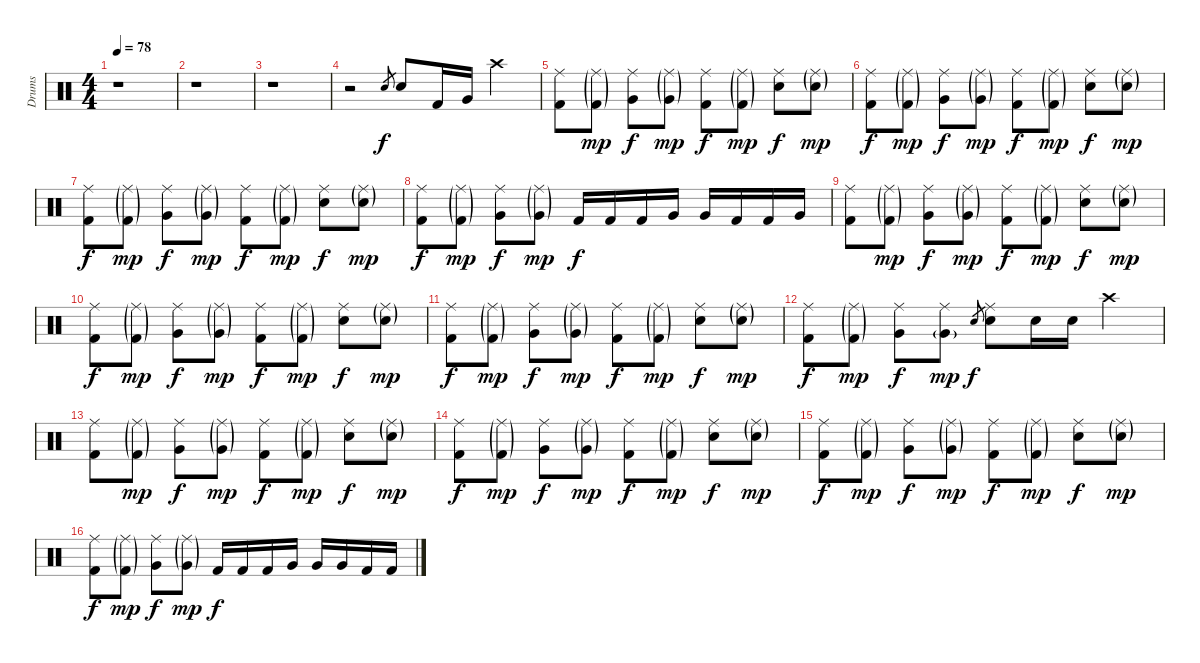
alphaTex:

\track ("Drums" "Drums") {instrument percussion}
\staff {score}
\articulation defaults
\ts (4 4)
\tempo 78
\clef neutral
\ks c
r.1{dy f} |
r.1 |
r.1 |
r.2 "Snare (hit) 2".8{gr} "Snare (hit) 2".8 "Kick (hit) 2".16 "Very Low Tom (hit)".16 "Crash high (hit)".4 |
("Ride (middle)" "Kick (hit) 2").8 ("Ride (middle)"{g} "Kick (hit) 2"{g}).8{dy mp} ("Ride (middle)" "Very Low Tom (hit)").8{dy f} ("Ride (middle)"{g} "Very Low Tom (hit)"{g}).8{dy mp} ("Ride (middle)" "Kick (hit) 2").8{dy f} ("Ride (middle)"{g} "Kick (hit) 2"{g}).8{dy mp} ("Ride (middle)" "Snare (hit) 2").8{dy f} ("Ride (middle)"{g} "Snare (hit) 2"{g}).8{dy mp} |
("Ride (middle)" "Kick (hit) 2").8{dy f} ("Ride (middle)"{g} "Kick (hit) 2"{g}).8{dy mp} ("Ride (middle)" "Very Low Tom (hit)").8{dy f} ("Ride (middle)"{g} "Very Low Tom (hit)"{g}).8{dy mp} ("Ride (middle)" "Kick (hit) 2").8{dy f} ("Ride (middle)"{g} "Kick (hit) 2"{g}).8{dy mp} ("Ride (middle)" "Snare (hit) 2").8{dy f} ("Ride (middle)"{g} "Snare (hit) 2"{g}).8{dy mp} |
("Ride (middle)" "Kick (hit) 2").8{dy f} ("Ride (middle)"{g} "Kick (hit) 2"{g}).8{dy mp} ("Ride (middle)" "Very Low Tom (hit)").8{dy f} ("Ride (middle)"{g} "Very Low Tom (hit)"{g}).8{dy mp} ("Ride (middle)" "Kick (hit) 2").8{dy f} ("Ride (middle)"{g} "Kick (hit) 2"{g}).8{dy mp} ("Ride (middle)" "Snare (hit) 2").8{dy f} ("Ride (middle)"{g} "Snare (hit) 2"{g}).8{dy mp} |
("Ride (middle)" "Kick (hit) 2").8{dy f} ("Ride (middle)"{g} "Kick (hit) 2"{g}).8{dy mp} ("Ride (middle)" "Very Low Tom (hit)").8{dy f} ("Ride (middle)"{g} "Very Low Tom (hit)"{g}).8{dy mp} "Kick (hit) 2".16{dy f} "Kick (hit) 2".16 "Kick (hit) 2".16 "Very Low Tom (hit)".16 "Very Low Tom (hit)".16 "Kick (hit) 2".16 "Kick (hit) 2".16 "Very Low Tom (hit)".16 |
("Ride (middle)" "Kick (hit) 2").8 ("Ride (middle)"{g} "Kick (hit) 2"{g}).8{dy mp} ("Ride (middle)" "Very Low Tom (hit)").8{dy f} ("Ride (middle)"{g} "Very Low Tom (hit)"{g}).8{dy mp} ("Ride (middle)" "Kick (hit) 2").8{dy f} ("Ride (middle)"{g} "Kick (hit) 2"{g}).8{dy mp} ("Ride (middle)" "Snare (hit) 2").8{dy f} ("Ride (middle)"{g} "Snare (hit) 2"{g}).8{dy mp} |
("Ride (middle)" "Kick (hit) 2").8{dy f} ("Ride (middle)"{g} "Kick (hit) 2"{g}).8{dy mp} ("Ride (middle)" "Very Low Tom (hit)").8{dy f} ("Ride (middle)"{g} "Very Low Tom (hit)"{g}).8{dy mp} ("Ride (middle)" "Kick (hit) 2").8{dy f} ("Ride (middle)"{g} "Kick (hit) 2"{g}).8{dy mp} ("Ride (middle)" "Snare (hit) 2").8{dy f} ("Ride (middle)"{g} "Snare (hit) 2"{g}).8{dy mp} |
("Ride (middle)" "Kick (hit) 2").8{dy f} ("Ride (middle)"{g} "Kick (hit) 2"{g}).8{dy mp} ("Ride (middle)" "Very Low Tom (hit)").8{dy f} ("Ride (middle)"{g} "Very Low Tom (hit)"{g}).8{dy mp} ("Ride (middle)" "Kick (hit) 2").8{dy f} ("Ride (middle)"{g} "Kick (hit) 2"{g}).8{dy mp} ("Ride (middle)" "Snare (hit) 2").8{dy f} ("Ride (middle)"{g} "Snare (hit) 2"{g}).8{dy mp} |
("Ride (middle)" "Kick (hit) 2").8{dy f} ("Ride (middle)"{g} "Kick (hit) 2"{g}).8{dy mp} ("Ride (middle)" "Very Low Tom (hit)").8{dy f} ("Ride (middle)" "Very Low Tom (hit)"{g}).8{dy mp} "Snare (hit) 2".8{gr dy f} ("Ride (middle)" "Snare (hit) 2").8 "Snare (hit) 2".16 "Snare (hit) 2".16 "Crash high (hit)".4 |
("Ride (middle)" "Kick (hit) 2").8 ("Ride (middle)"{g} "Kick (hit) 2"{g}).8{dy mp} ("Ride (middle)" "Very Low Tom (hit)").8{dy f} ("Ride (middle)"{g} "Very Low Tom (hit)"{g}).8{dy mp} ("Ride (middle)" "Kick (hit) 2").8{dy f} ("Ride (middle)"{g} "Kick (hit) 2"{g}).8{dy mp} ("Ride (middle)" "Snare (hit) 2").8{dy f} ("Ride (middle)"{g} "Snare (hit) 2"{g}).8{dy mp} |
("Ride (middle)" "Kick (hit) 2").8{dy f} ("Ride (middle)"{g} "Kick (hit) 2"{g}).8{dy mp} ("Ride (middle)" "Very Low Tom (hit)").8{dy f} ("Ride (middle)"{g} "Very Low Tom (hit)"{g}).8{dy mp} ("Ride (middle)" "Kick (hit) 2").8{dy f} ("Ride (middle)"{g} "Kick (hit) 2"{g}).8{dy mp} ("Ride (middle)" "Snare (hit) 2").8{dy f} ("Ride (middle)"{g} "Snare (hit) 2"{g}).8{dy mp} |
("Ride (middle)" "Kick (hit) 2").8{dy f} ("Ride (middle)"{g} "Kick (hit) 2"{g}).8{dy mp} ("Ride (middle)" "Very Low Tom (hit)").8{dy f} ("Ride (middle)"{g} "Very Low Tom (hit)"{g}).8{dy mp} ("Ride (middle)" "Kick (hit) 2").8{dy f} ("Ride (middle)"{g} "Kick (hit) 2"{g}).8{dy mp} ("Ride (middle)" "Snare (hit) 2").8{dy f} ("Ride (middle)"{g} "Snare (hit) 2"{g}).8{dy mp} |
("Ride (middle)" "Kick (hit) 2").8{dy f} ("Ride (middle)"{g} "Kick (hit) 2"{g}).8{dy mp} ("Ride (middle)" "Very Low Tom (hit)").8{dy f} ("Ride (middle)"{g} "Very Low Tom (hit)"{g}).8{dy mp} "Kick (hit) 2".16{dy f} "Kick (hit) 2".16 "Kick (hit) 2".16 "Very Low Tom (hit)".16 "Very Low Tom (hit)".16 "Very Low Tom (hit)".16 "Kick (hit) 2".16 "Kick (hit) 2".16
